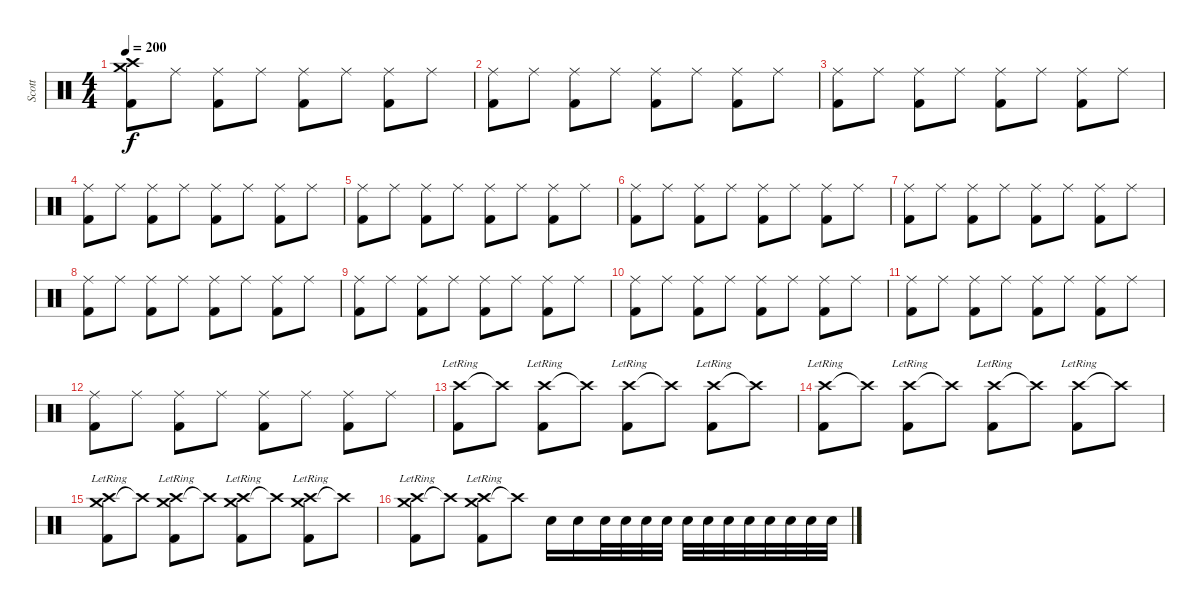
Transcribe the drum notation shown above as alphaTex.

\track ("Scott" "Scott") {instrument percussion}
\staff {score}
\articulation defaults
\ts (4 4)
\tempo 200
\clef neutral
\ks c
("Crash medium (hit)" "Crash high (hit)" "Kick (hit) 2").8{dy f} "Ride (middle)".8 ("Ride (middle)" "Kick (hit) 2").8 "Ride (middle)".8 ("Ride (middle)" "Kick (hit) 2").8 "Ride (middle)".8 ("Ride (middle)" "Kick (hit) 2").8 "Ride (middle)".8 |
("Ride (middle)" "Kick (hit) 2").8 "Ride (middle)".8 ("Ride (middle)" "Kick (hit) 2").8 "Ride (middle)".8 ("Ride (middle)" "Kick (hit) 2").8 "Ride (middle)".8 ("Ride (middle)" "Kick (hit) 2").8 "Ride (middle)".8 |
("Ride (middle)" "Kick (hit) 2").8 "Ride (middle)".8 ("Ride (middle)" "Kick (hit) 2").8 "Ride (middle)".8 ("Ride (middle)" "Kick (hit) 2").8 "Ride (middle)".8 ("Ride (middle)" "Kick (hit) 2").8 "Ride (middle)".8 |
("Ride (middle)" "Kick (hit) 2").8 "Ride (middle)".8 ("Ride (middle)" "Kick (hit) 2").8 "Ride (middle)".8 ("Ride (middle)" "Kick (hit) 2").8 "Ride (middle)".8 ("Ride (middle)" "Kick (hit) 2").8 "Ride (middle)".8 |
("Ride (middle)" "Kick (hit) 2").8 "Ride (middle)".8 ("Ride (middle)" "Kick (hit) 2").8 "Ride (middle)".8 ("Ride (middle)" "Kick (hit) 2").8 "Ride (middle)".8 ("Ride (middle)" "Kick (hit) 2").8 "Ride (middle)".8 |
("Ride (middle)" "Kick (hit) 2").8 "Ride (middle)".8 ("Ride (middle)" "Kick (hit) 2").8 "Ride (middle)".8 ("Ride (middle)" "Kick (hit) 2").8 "Ride (middle)".8 ("Ride (middle)" "Kick (hit) 2").8 "Ride (middle)".8 |
("Ride (middle)" "Kick (hit) 2").8 "Ride (middle)".8 ("Ride (middle)" "Kick (hit) 2").8 "Ride (middle)".8 ("Ride (middle)" "Kick (hit) 2").8 "Ride (middle)".8 ("Ride (middle)" "Kick (hit) 2").8 "Ride (middle)".8 |
("Ride (middle)" "Kick (hit) 2").8 "Ride (middle)".8 ("Ride (middle)" "Kick (hit) 2").8 "Ride (middle)".8 ("Ride (middle)" "Kick (hit) 2").8 "Ride (middle)".8 ("Ride (middle)" "Kick (hit) 2").8 "Ride (middle)".8 |
("Ride (middle)" "Kick (hit) 2").8 "Ride (middle)".8 ("Ride (middle)" "Kick (hit) 2").8 "Ride (middle)".8 ("Ride (middle)" "Kick (hit) 2").8 "Ride (middle)".8 ("Ride (middle)" "Kick (hit) 2").8 "Ride (middle)".8 |
("Ride (middle)" "Kick (hit) 2").8 "Ride (middle)".8 ("Ride (middle)" "Kick (hit) 2").8 "Ride (middle)".8 ("Ride (middle)" "Kick (hit) 2").8 "Ride (middle)".8 ("Ride (middle)" "Kick (hit) 2").8 "Ride (middle)".8 |
("Ride (middle)" "Kick (hit) 2").8 "Ride (middle)".8 ("Ride (middle)" "Kick (hit) 2").8 "Ride (middle)".8 ("Ride (middle)" "Kick (hit) 2").8 "Ride (middle)".8 ("Ride (middle)" "Kick (hit) 2").8 "Ride (middle)".8 |
("Ride (middle)" "Kick (hit) 2").8 "Ride (middle)".8 ("Ride (middle)" "Kick (hit) 2").8 "Ride (middle)".8 ("Ride (middle)" "Kick (hit) 2").8 "Ride (middle)".8 ("Ride (middle)" "Kick (hit) 2").8 "Ride (middle)".8 |
("Crash high (hit)"{lr} "Kick (hit) 2").8 "Crash high (hit)"{t}.8 ("Crash high (hit)"{lr} "Kick (hit) 2").8 "Crash high (hit)"{t}.8 ("Crash high (hit)"{lr} "Kick (hit) 2").8 "Crash high (hit)"{t}.8 ("Crash high (hit)"{lr} "Kick (hit) 2").8 "Crash high (hit)"{t}.8 |
("Crash high (hit)"{lr} "Kick (hit) 2").8 "Crash high (hit)"{t}.8 ("Crash high (hit)"{lr} "Kick (hit) 2").8 "Crash high (hit)"{t}.8 ("Crash high (hit)"{lr} "Kick (hit) 2").8 "Crash high (hit)"{t}.8 ("Crash high (hit)"{lr} "Kick (hit) 2").8 "Crash high (hit)"{t}.8 |
("Crash medium (hit)" "Crash high (hit)"{lr} "Kick (hit) 2").8 "Crash high (hit)"{t}.8 ("Crash medium (hit)" "Crash high (hit)"{lr} "Kick (hit) 2").8 "Crash high (hit)"{t}.8 ("Crash medium (hit)" "Crash high (hit)"{lr} "Kick (hit) 2").8 "Crash high (hit)"{t}.8 ("Crash medium (hit)" "Crash high (hit)"{lr} "Kick (hit) 2").8 "Crash high (hit)"{t}.8 |
("Crash medium (hit)" "Crash high (hit)"{lr} "Kick (hit) 2").8 "Crash high (hit)"{t}.8 ("Crash medium (hit)" "Crash high (hit)"{lr} "Kick (hit) 2").8 "Crash high (hit)"{t}.8 "Snare (hit) 2".16 "Snare (hit) 2".16 "Snare (hit) 2".32 "Snare (hit) 2".32 "Snare (hit) 2".32 "Snare (hit) 2".32 "Snare (hit) 2".32 "Snare (hit) 2".32 "Snare (hit) 2".32 "Snare (hit) 2".32 "Snare (hit) 2".32 "Snare (hit) 2".32 "Snare (hit) 2".32 "Snare (hit) 2".32
